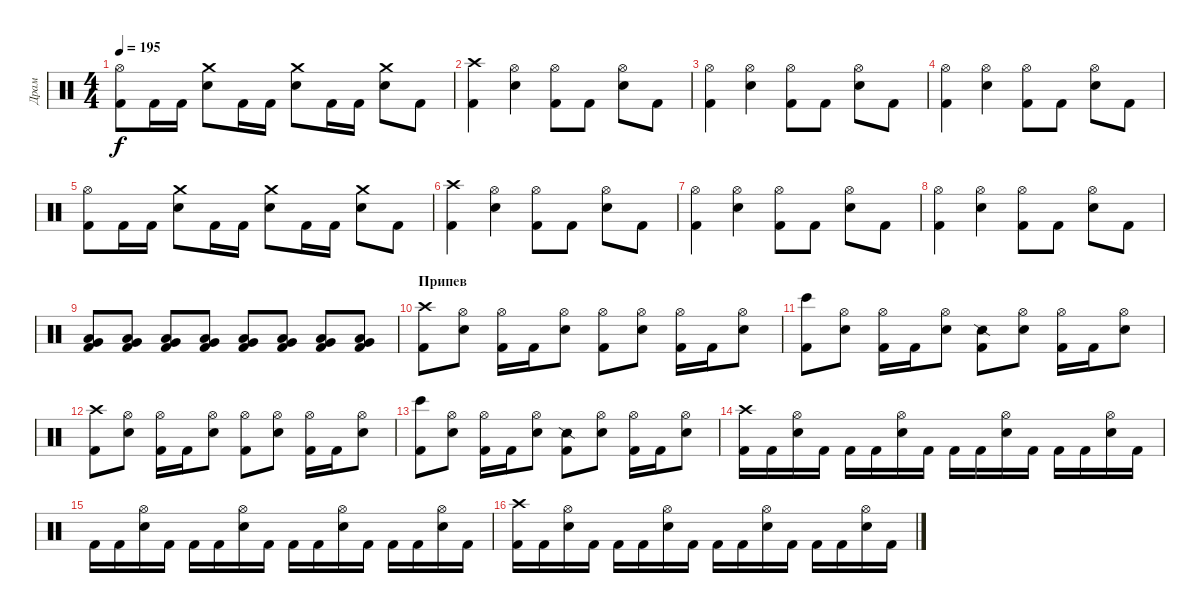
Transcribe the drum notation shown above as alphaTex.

\track ("Драм" "Драм") {instrument percussion}
\staff {score}
\articulation defaults
\ts (4 4)
\tempo 195
\clef neutral
\ks c
("Hi-Hat (open)" "Kick (hit) 2").8{dy f} "Kick (hit) 2".16 "Kick (hit) 2".16 ("Snare (hit) 2" "Crash medium (hit)").8 "Kick (hit) 2".16 "Kick (hit) 2".16 ("Snare (hit) 2" "Crash medium (hit)").8 "Kick (hit) 2".16 "Kick (hit) 2".16 ("Snare (hit) 2" "Crash medium (hit)").8 "Kick (hit) 2".8 |
("Kick (hit) 2" "Crash high (hit)").4 ("Hi-Hat (open)" "Snare (hit) 2").4 ("Hi-Hat (open)" "Kick (hit) 2").8 "Kick (hit) 2".8 ("Hi-Hat (open)" "Snare (hit) 2").8 "Kick (hit) 2".8 |
("Hi-Hat (open)" "Kick (hit) 2").4 ("Hi-Hat (open)" "Snare (hit) 2").4 ("Hi-Hat (open)" "Kick (hit) 2").8 "Kick (hit) 2".8 ("Hi-Hat (open)" "Snare (hit) 2").8 "Kick (hit) 2".8 |
("Hi-Hat (open)" "Kick (hit) 2").4 ("Hi-Hat (open)" "Snare (hit) 2").4 ("Hi-Hat (open)" "Kick (hit) 2").8 "Kick (hit) 2".8 ("Hi-Hat (open)" "Snare (hit) 2").8 "Kick (hit) 2".8 |
("Hi-Hat (open)" "Kick (hit) 2").8 "Kick (hit) 2".16 "Kick (hit) 2".16 ("Snare (hit) 2" "Crash medium (hit)").8 "Kick (hit) 2".16 "Kick (hit) 2".16 ("Snare (hit) 2" "Crash medium (hit)").8 "Kick (hit) 2".16 "Kick (hit) 2".16 ("Snare (hit) 2" "Crash medium (hit)").8 "Kick (hit) 2".8 |
("Kick (hit) 2" "Crash high (hit)").4 ("Hi-Hat (open)" "Snare (hit) 2").4 ("Hi-Hat (open)" "Kick (hit) 2").8 "Kick (hit) 2".8 ("Hi-Hat (open)" "Snare (hit) 2").8 "Kick (hit) 2".8 |
("Hi-Hat (open)" "Kick (hit) 2").4 ("Hi-Hat (open)" "Snare (hit) 2").4 ("Hi-Hat (open)" "Kick (hit) 2").8 "Kick (hit) 2".8 ("Hi-Hat (open)" "Snare (hit) 2").8 "Kick (hit) 2".8 |
("Hi-Hat (open)" "Kick (hit) 2").4 ("Hi-Hat (open)" "Snare (hit) 2").4 ("Hi-Hat (open)" "Kick (hit) 2").8 "Kick (hit) 2".8 ("Hi-Hat (open)" "Snare (hit) 2").8 "Kick (hit) 2".8 |
("Very Low Tom (hit)" "Low Floor Tom (hit)" "Kick (hit) 2").8 ("Very Low Tom (hit)" "Low Floor Tom (hit)" "Kick (hit) 2").8 ("Very Low Tom (hit)" "Low Floor Tom (hit)" "Kick (hit) 2").8 ("Very Low Tom (hit)" "Low Floor Tom (hit)" "Kick (hit) 2").8 ("Very Low Tom (hit)" "Low Floor Tom (hit)" "Kick (hit) 2").8 ("Very Low Tom (hit)" "Low Floor Tom (hit)" "Kick (hit) 2").8 ("Very Low Tom (hit)" "Low Floor Tom (hit)" "Kick (hit) 2").8 ("Very Low Tom (hit)" "Low Floor Tom (hit)" "Kick (hit) 2").8 |
\section ("" "Припев")
("Kick (hit) 2" "Crash high (hit)").8 ("Hi-Hat (open)" "Snare (hit) 2").8 ("Hi-Hat (open)" "Kick (hit) 2").16 "Kick (hit) 2".16 ("Hi-Hat (open)" "Snare (hit) 2").8 ("Hi-Hat (open)" "Kick (hit) 2").8 ("Hi-Hat (open)" "Snare (hit) 2").8 ("Hi-Hat (open)" "Kick (hit) 2").16 "Kick (hit) 2".16 ("Hi-Hat (open)" "Snare (hit) 2").8 |
("Kick (hit) 2" "Bongo High (hit)").8 ("Hi-Hat (open)" "Snare (hit) 2").8 ("Hi-Hat (open)" "Kick (hit) 2").16 "Kick (hit) 2".16 ("Hi-Hat (open)" "Snare (hit) 2").8 ("Kick (hit) 2" "Snare (side stick) 2").8 ("Hi-Hat (open)" "Snare (hit) 2").8 ("Hi-Hat (open)" "Kick (hit) 2").16 "Kick (hit) 2".16 ("Hi-Hat (open)" "Snare (hit) 2").8 |
("Kick (hit) 2" "Crash high (hit)").8 ("Hi-Hat (open)" "Snare (hit) 2").8 ("Hi-Hat (open)" "Kick (hit) 2").16 "Kick (hit) 2".16 ("Hi-Hat (open)" "Snare (hit) 2").8 ("Hi-Hat (open)" "Kick (hit) 2").8 ("Hi-Hat (open)" "Snare (hit) 2").8 ("Hi-Hat (open)" "Kick (hit) 2").16 "Kick (hit) 2".16 ("Hi-Hat (open)" "Snare (hit) 2").8 |
("Kick (hit) 2" "Bongo High (hit)").8 ("Hi-Hat (open)" "Snare (hit) 2").8 ("Hi-Hat (open)" "Kick (hit) 2").16 "Kick (hit) 2".16 ("Hi-Hat (open)" "Snare (hit) 2").8 ("Kick (hit) 2" "Snare (side stick) 2").8 ("Hi-Hat (open)" "Snare (hit) 2").8 ("Hi-Hat (open)" "Kick (hit) 2").16 "Kick (hit) 2".16 ("Hi-Hat (open)" "Snare (hit) 2").8 |
("Kick (hit) 2" "Crash high (hit)").16 "Kick (hit) 2".16 ("Hi-Hat (open)" "Snare (hit) 2").16 "Kick (hit) 2".16 "Kick (hit) 2".16 "Kick (hit) 2".16 ("Hi-Hat (open)" "Snare (hit) 2").16 "Kick (hit) 2".16 "Kick (hit) 2".16 "Kick (hit) 2".16 ("Hi-Hat (open)" "Snare (hit) 2").16 "Kick (hit) 2".16 "Kick (hit) 2".16 "Kick (hit) 2".16 ("Hi-Hat (open)" "Snare (hit) 2").16 "Kick (hit) 2".16 |
"Kick (hit) 2".16 "Kick (hit) 2".16 ("Hi-Hat (open)" "Snare (hit) 2").16 "Kick (hit) 2".16 "Kick (hit) 2".16 "Kick (hit) 2".16 ("Hi-Hat (open)" "Snare (hit) 2").16 "Kick (hit) 2".16 "Kick (hit) 2".16 "Kick (hit) 2".16 ("Hi-Hat (open)" "Snare (hit) 2").16 "Kick (hit) 2".16 "Kick (hit) 2".16 "Kick (hit) 2".16 ("Hi-Hat (open)" "Snare (hit) 2").16 "Kick (hit) 2".16 |
("Kick (hit) 2" "Crash high (hit)").16 "Kick (hit) 2".16 ("Hi-Hat (open)" "Snare (hit) 2").16 "Kick (hit) 2".16 "Kick (hit) 2".16 "Kick (hit) 2".16 ("Hi-Hat (open)" "Snare (hit) 2").16 "Kick (hit) 2".16 "Kick (hit) 2".16 "Kick (hit) 2".16 ("Hi-Hat (open)" "Snare (hit) 2").16 "Kick (hit) 2".16 "Kick (hit) 2".16 "Kick (hit) 2".16 ("Hi-Hat (open)" "Snare (hit) 2").16 "Kick (hit) 2".16
